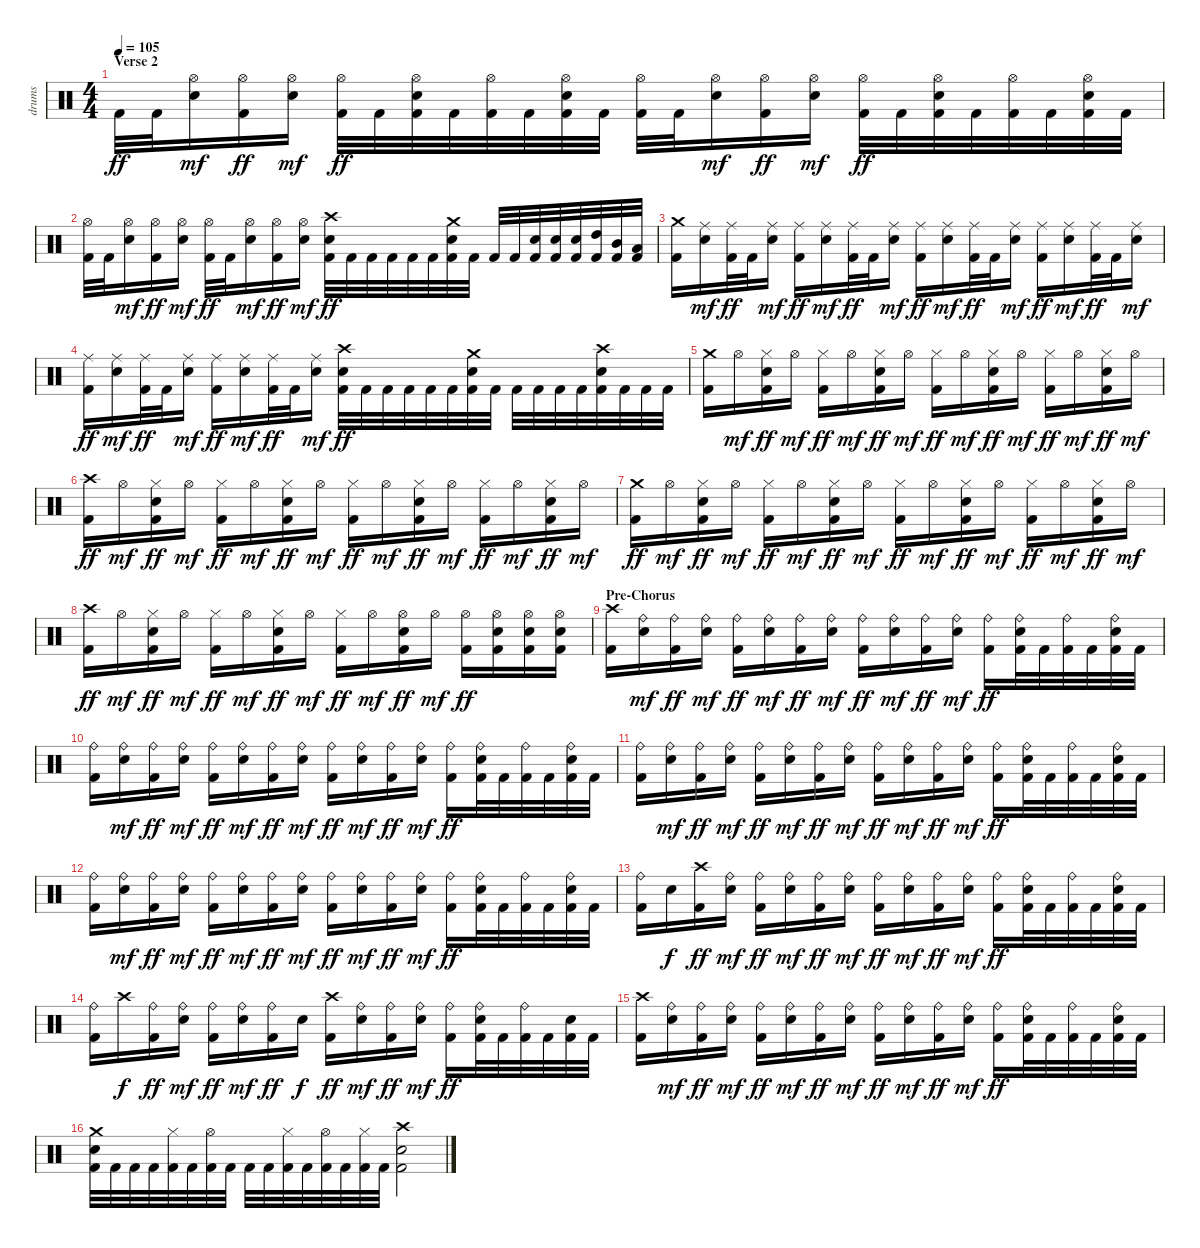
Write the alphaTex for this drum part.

\track ("drums" "drums") {instrument percussion}
\staff {score}
\articulation defaults
\ts (4 4)
\section ("" "Verse 2")
\tempo 105
\clef neutral
\ks c "Kick (hit) 2".32{dy ff} "Kick (hit) 2".32
("Hi-Hat (open)" "Snare (hit) 2").16{dy mf} ("Hi-Hat (open)" "Kick (hit) 2").16{dy ff} ("Hi-Hat (open)" "Snare (hit) 2").16{dy mf} ("Hi-Hat (open)" "Kick (hit) 2").32{dy ff} "Kick (hit) 2".32 ("Hi-Hat (open)" "Snare (hit) 2" "Kick (hit) 2").32 "Kick (hit) 2".32 ("Hi-Hat (open)" "Kick (hit) 2").32 "Kick (hit) 2".32 ("Hi-Hat (open)" "Snare (hit) 2" "Kick (hit) 2").32 "Kick (hit) 2".32 ("Hi-Hat (open)" "Kick (hit) 2").32 "Kick (hit) 2".32 ("Hi-Hat (open)" "Snare (hit) 2").16{dy mf} ("Hi-Hat (open)" "Kick (hit) 2").16{dy ff} ("Hi-Hat (open)" "Snare (hit) 2").16{dy mf} ("Hi-Hat (open)" "Kick (hit) 2").32{dy ff} "Kick (hit) 2".32 ("Hi-Hat (open)" "Snare (hit) 2" "Kick (hit) 2").32 "Kick (hit) 2".32 ("Hi-Hat (open)" "Kick (hit) 2").32 "Kick (hit) 2".32 ("Hi-Hat (open)" "Snare (hit) 2" "Kick (hit) 2").32 "Kick (hit) 2".32 |
("Hi-Hat (open)" "Kick (hit) 2").32 "Kick (hit) 2".32 ("Hi-Hat (open)" "Snare (hit) 2").16{dy mf} ("Hi-Hat (open)" "Kick (hit) 2").16{dy ff} ("Hi-Hat (open)" "Snare (hit) 2").16{dy mf} ("Hi-Hat (open)" "Kick (hit) 2").32{dy ff} "Kick (hit) 2".32 ("Hi-Hat (open)" "Snare (hit) 2").16{dy mf} ("Hi-Hat (open)" "Kick (hit) 2").16{dy ff} ("Hi-Hat (open)" "Snare (hit) 2").16{dy mf} ("Crash high (hit)" "Snare (hit) 2" "Kick (hit) 2").32{dy ff} "Kick (hit) 2".32 "Kick (hit) 2".32 "Kick (hit) 2".32 "Kick (hit) 2".32 "Kick (hit) 2".32 ("Crash medium (hit)" "Snare (hit) 2" "Kick (hit) 2").32 "Kick (hit) 2".32 "Kick (hit) 2".32 "Kick (hit) 2".32 ("Snare (hit) 2" "Kick (hit) 2").32 ("Snare (hit) 2" "Kick (hit) 2").32 ("Snare (hit) 2" "Kick (hit) 2").32 ("High Tom (hit)" "Kick (hit) 2").32 ("Mid Tom (hit)" "Kick (hit) 2").32 ("Low Tom (hit)" "Kick (hit) 2").32 |
("Crash medium (hit)" "Kick (hit) 2").16 ("Ride (middle)" "Snare (hit) 2").16{dy mf} ("Ride (middle)" "Kick (hit) 2").32{dy ff} "Kick (hit) 2".32 ("Ride (middle)" "Snare (hit) 2").16{dy mf} ("Ride (middle)" "Kick (hit) 2").16{dy ff} ("Ride (middle)" "Snare (hit) 2").16{dy mf} ("Ride (middle)" "Kick (hit) 2").32{dy ff} "Kick (hit) 2".32 ("Ride (middle)" "Snare (hit) 2").16{dy mf} ("Ride (middle)" "Kick (hit) 2").16{dy ff} ("Ride (middle)" "Snare (hit) 2").16{dy mf} ("Ride (middle)" "Kick (hit) 2").32{dy ff} "Kick (hit) 2".32 ("Ride (middle)" "Snare (hit) 2").16{dy mf} ("Ride (middle)" "Kick (hit) 2").16{dy ff} ("Ride (middle)" "Snare (hit) 2").16{dy mf} ("Ride (middle)" "Kick (hit) 2").32{dy ff} "Kick (hit) 2".32 ("Ride (middle)" "Snare (hit) 2").16{dy mf} |
("Ride (middle)" "Kick (hit) 2").16{dy ff} ("Ride (middle)" "Snare (hit) 2").16{dy mf} ("Ride (middle)" "Kick (hit) 2").32{dy ff} "Kick (hit) 2".32 ("Ride (middle)" "Snare (hit) 2").16{dy mf} ("Ride (middle)" "Kick (hit) 2").16{dy ff} ("Ride (middle)" "Snare (hit) 2").16{dy mf} ("Ride (middle)" "Kick (hit) 2").32{dy ff} "Kick (hit) 2".32 ("Ride (middle)" "Snare (hit) 2").16{dy mf} ("Crash high (hit)" "Snare (hit) 2" "Kick (hit) 2").32{dy ff} "Kick (hit) 2".32 "Kick (hit) 2".32 "Kick (hit) 2".32 "Kick (hit) 2".32 "Kick (hit) 2".32 ("Crash medium (hit)" "Snare (hit) 2" "Kick (hit) 2").32 "Kick (hit) 2".32 "Kick (hit) 2".32 "Kick (hit) 2".32 "Kick (hit) 2".32 "Kick (hit) 2".32 ("Crash high (hit)" "Snare (hit) 2" "Kick (hit) 2").32 "Kick (hit) 2".32 "Kick (hit) 2".32 "Kick (hit) 2".32 |
\section ("" "")
("Crash medium (hit)" "Kick (hit) 2").16 "Hi-Hat (open)".16{dy mf} ("Hi-Hat (closed)" "Snare (hit) 2" "Kick (hit) 2").16{dy ff} "Hi-Hat (open)".16{dy mf} ("Hi-Hat (closed)" "Kick (hit) 2").16{dy ff} "Hi-Hat (open)".16{dy mf} ("Hi-Hat (closed)" "Snare (hit) 2" "Kick (hit) 2").16{dy ff} "Hi-Hat (open)".16{dy mf} ("Hi-Hat (closed)" "Kick (hit) 2").16{dy ff} "Hi-Hat (open)".16{dy mf} ("Hi-Hat (closed)" "Snare (hit) 2" "Kick (hit) 2").16{dy ff} "Hi-Hat (open)".16{dy mf} ("Hi-Hat (closed)" "Kick (hit) 2").16{dy ff} "Hi-Hat (open)".16{dy mf} ("Hi-Hat (closed)" "Snare (hit) 2" "Kick (hit) 2").16{dy ff} "Hi-Hat (open)".16{dy mf} |
("Crash high (hit)" "Kick (hit) 2").16{dy ff} "Hi-Hat (open)".16{dy mf} ("Hi-Hat (closed)" "Snare (hit) 2" "Kick (hit) 2").16{dy ff} "Hi-Hat (open)".16{dy mf} ("Hi-Hat (closed)" "Kick (hit) 2").16{dy ff} "Hi-Hat (open)".16{dy mf} ("Hi-Hat (closed)" "Snare (hit) 2" "Kick (hit) 2").16{dy ff} "Hi-Hat (open)".16{dy mf} ("Hi-Hat (closed)" "Kick (hit) 2").16{dy ff} "Hi-Hat (open)".16{dy mf} ("Hi-Hat (closed)" "Snare (hit) 2" "Kick (hit) 2").16{dy ff} "Hi-Hat (open)".16{dy mf} ("Hi-Hat (closed)" "Kick (hit) 2").16{dy ff} "Hi-Hat (open)".16{dy mf} ("Hi-Hat (closed)" "Snare (hit) 2" "Kick (hit) 2").16{dy ff} "Hi-Hat (open)".16{dy mf} |
("Crash medium (hit)" "Kick (hit) 2").16{dy ff} "Hi-Hat (open)".16{dy mf} ("Hi-Hat (closed)" "Snare (hit) 2" "Kick (hit) 2").16{dy ff} "Hi-Hat (open)".16{dy mf} ("Hi-Hat (closed)" "Kick (hit) 2").16{dy ff} "Hi-Hat (open)".16{dy mf} ("Hi-Hat (closed)" "Snare (hit) 2" "Kick (hit) 2").16{dy ff} "Hi-Hat (open)".16{dy mf} ("Hi-Hat (closed)" "Kick (hit) 2").16{dy ff} "Hi-Hat (open)".16{dy mf} ("Hi-Hat (closed)" "Snare (hit) 2" "Kick (hit) 2").16{dy ff} "Hi-Hat (open)".16{dy mf} ("Hi-Hat (closed)" "Kick (hit) 2").16{dy ff} "Hi-Hat (open)".16{dy mf} ("Hi-Hat (closed)" "Snare (hit) 2" "Kick (hit) 2").16{dy ff} "Hi-Hat (open)".16{dy mf} |
("Crash high (hit)" "Kick (hit) 2").16{dy ff} "Hi-Hat (open)".16{dy mf} ("Hi-Hat (closed)" "Snare (hit) 2" "Kick (hit) 2").16{dy ff} "Hi-Hat (open)".16{dy mf} ("Hi-Hat (closed)" "Kick (hit) 2").16{dy ff} "Hi-Hat (open)".16{dy mf} ("Hi-Hat (closed)" "Snare (hit) 2" "Kick (hit) 2").16{dy ff} "Hi-Hat (open)".16{dy mf} ("Hi-Hat (closed)" "Kick (hit) 2").16{dy ff} "Hi-Hat (open)".16{dy mf} ("Hi-Hat (open)" "Snare (hit) 2" "Kick (hit) 2").16{dy ff} "Hi-Hat (open)".16{dy mf} ("Hi-Hat (open)" "Kick (hit) 2").16{dy ff} ("Hi-Hat (open)" "Snare (hit) 2" "Kick (hit) 2").16 ("Hi-Hat (open)" "Snare (hit) 2" "Kick (hit) 2").16 ("Hi-Hat (open)" "Snare (hit) 2" "Kick (hit) 2").16 |
\section ("" "Pre-Chorus")
("Crash high (hit)" "Kick (hit) 2").16 ("Ride (bell)" "Snare (hit) 2").16{dy mf} ("Ride (bell)" "Kick (hit) 2").16{dy ff} ("Ride (bell)" "Snare (hit) 2").16{dy mf} ("Ride (bell)" "Kick (hit) 2").16{dy ff} ("Ride (bell)" "Snare (hit) 2").16{dy mf} ("Ride (bell)" "Kick (hit) 2").16{dy ff} ("Ride (bell)" "Snare (hit) 2").16{dy mf} ("Ride (bell)" "Kick (hit) 2").16{dy ff} ("Ride (bell)" "Snare (hit) 2").16{dy mf} ("Ride (bell)" "Kick (hit) 2").16{dy ff} ("Ride (bell)" "Snare (hit) 2").16{dy mf} ("Ride (bell)" "Kick (hit) 2").16{dy ff} ("Ride (bell)" "Snare (hit) 2" "Kick (hit) 2").32 "Kick (hit) 2".32 ("Ride (bell)" "Kick (hit) 2").32 "Kick (hit) 2".32 ("Ride (bell)" "Snare (hit) 2" "Kick (hit) 2").32 "Kick (hit) 2".32 |
("Ride (bell)" "Kick (hit) 2").16 ("Ride (bell)" "Snare (hit) 2").16{dy mf} ("Ride (bell)" "Kick (hit) 2").16{dy ff} ("Ride (bell)" "Snare (hit) 2").16{dy mf} ("Ride (bell)" "Kick (hit) 2").16{dy ff} ("Ride (bell)" "Snare (hit) 2").16{dy mf} ("Ride (bell)" "Kick (hit) 2").16{dy ff} ("Ride (bell)" "Snare (hit) 2").16{dy mf} ("Ride (bell)" "Kick (hit) 2").16{dy ff} ("Ride (bell)" "Snare (hit) 2").16{dy mf} ("Ride (bell)" "Kick (hit) 2").16{dy ff} ("Ride (bell)" "Snare (hit) 2").16{dy mf} ("Ride (bell)" "Kick (hit) 2").16{dy ff} ("Ride (bell)" "Snare (hit) 2" "Kick (hit) 2").32 "Kick (hit) 2".32 ("Ride (bell)" "Kick (hit) 2").32 "Kick (hit) 2".32 ("Ride (bell)" "Snare (hit) 2" "Kick (hit) 2").32 "Kick (hit) 2".32 |
("Ride (bell)" "Kick (hit) 2").16 ("Ride (bell)" "Snare (hit) 2").16{dy mf} ("Ride (bell)" "Kick (hit) 2").16{dy ff} ("Ride (bell)" "Snare (hit) 2").16{dy mf} ("Ride (bell)" "Kick (hit) 2").16{dy ff} ("Ride (bell)" "Snare (hit) 2").16{dy mf} ("Ride (bell)" "Kick (hit) 2").16{dy ff} ("Ride (bell)" "Snare (hit) 2").16{dy mf} ("Ride (bell)" "Kick (hit) 2").16{dy ff} ("Ride (bell)" "Snare (hit) 2").16{dy mf} ("Ride (bell)" "Kick (hit) 2").16{dy ff} ("Ride (bell)" "Snare (hit) 2").16{dy mf} ("Ride (bell)" "Kick (hit) 2").16{dy ff} ("Ride (bell)" "Snare (hit) 2" "Kick (hit) 2").32 "Kick (hit) 2".32 ("Ride (bell)" "Kick (hit) 2").32 "Kick (hit) 2".32 ("Ride (bell)" "Snare (hit) 2" "Kick (hit) 2").32 "Kick (hit) 2".32 |
("Ride (bell)" "Kick (hit) 2").16 ("Ride (bell)" "Snare (hit) 2").16{dy mf} ("Ride (bell)" "Kick (hit) 2").16{dy ff} ("Ride (bell)" "Snare (hit) 2").16{dy mf} ("Ride (bell)" "Kick (hit) 2").16{dy ff} ("Ride (bell)" "Snare (hit) 2").16{dy mf} ("Ride (bell)" "Kick (hit) 2").16{dy ff} ("Ride (bell)" "Snare (hit) 2").16{dy mf} ("Ride (bell)" "Kick (hit) 2").16{dy ff} ("Ride (bell)" "Snare (hit) 2").16{dy mf} ("Ride (bell)" "Kick (hit) 2").16{dy ff} ("Ride (bell)" "Snare (hit) 2").16{dy mf} ("Ride (bell)" "Kick (hit) 2").16{dy ff} ("Ride (bell)" "Snare (hit) 2" "Kick (hit) 2").32 "Kick (hit) 2".32 ("Ride (bell)" "Kick (hit) 2").32 "Kick (hit) 2".32 ("Ride (bell)" "Snare (hit) 2" "Kick (hit) 2").32 "Kick (hit) 2".32 |
("Ride (bell)" "Kick (hit) 2").16 "Snare (hit) 2".16{dy f} ("Crash high (hit)" "Kick (hit) 2").16{dy ff} ("Ride (bell)" "Snare (hit) 2").16{dy mf} ("Ride (bell)" "Kick (hit) 2").16{dy ff} ("Ride (bell)" "Snare (hit) 2").16{dy mf} ("Ride (bell)" "Kick (hit) 2").16{dy ff} ("Ride (bell)" "Snare (hit) 2").16{dy mf} ("Ride (bell)" "Kick (hit) 2").16{dy ff} ("Ride (bell)" "Snare (hit) 2").16{dy mf} ("Ride (bell)" "Kick (hit) 2").16{dy ff} ("Ride (bell)" "Snare (hit) 2").16{dy mf} ("Ride (bell)" "Kick (hit) 2").16{dy ff} ("Ride (bell)" "Snare (hit) 2" "Kick (hit) 2").32 "Kick (hit) 2".32 ("Ride (bell)" "Kick (hit) 2").32 "Kick (hit) 2".32 ("Ride (bell)" "Snare (hit) 2" "Kick (hit) 2").32 "Kick (hit) 2".32 |
("Ride (bell)" "Kick (hit) 2").16 "Crash high (hit)".16{dy f} ("Ride (bell)" "Kick (hit) 2").16{dy ff} ("Ride (bell)" "Snare (hit) 2").16{dy mf} ("Ride (bell)" "Kick (hit) 2").16{dy ff} ("Ride (bell)" "Snare (hit) 2").16{dy mf} ("Ride (bell)" "Kick (hit) 2").16{dy ff} "Snare (hit) 2".16{dy f} ("Crash high (hit)" "Kick (hit) 2").16{dy ff} ("Ride (bell)" "Snare (hit) 2").16{dy mf} ("Ride (bell)" "Kick (hit) 2").16{dy ff} ("Ride (bell)" "Snare (hit) 2").16{dy mf} ("Ride (bell)" "Kick (hit) 2").16{dy ff} ("Ride (bell)" "Snare (hit) 2" "Kick (hit) 2").32 "Kick (hit) 2".32 ("Ride (bell)" "Kick (hit) 2").32 "Kick (hit) 2".32 ("Snare (hit) 2" "Kick (hit) 2").32 "Kick (hit) 2".32 |
("Crash high (hit)" "Kick (hit) 2").16 ("Ride (bell)" "Snare (hit) 2").16{dy mf} ("Ride (bell)" "Kick (hit) 2").16{dy ff} ("Ride (bell)" "Snare (hit) 2").16{dy mf} ("Ride (bell)" "Kick (hit) 2").16{dy ff} ("Ride (bell)" "Snare (hit) 2").16{dy mf} ("Ride (bell)" "Kick (hit) 2").16{dy ff} ("Ride (bell)" "Snare (hit) 2").16{dy mf} ("Ride (bell)" "Kick (hit) 2").16{dy ff} ("Ride (bell)" "Snare (hit) 2").16{dy mf} ("Ride (bell)" "Kick (hit) 2").16{dy ff} ("Ride (bell)" "Snare (hit) 2").16{dy mf} ("Ride (bell)" "Kick (hit) 2").16{dy ff} ("Ride (bell)" "Snare (hit) 2" "Kick (hit) 2").32 "Kick (hit) 2".32 ("Ride (bell)" "Kick (hit) 2").32 "Kick (hit) 2".32 ("Ride (bell)" "Snare (hit) 2" "Kick (hit) 2").32 "Kick (hit) 2".32 |
("Crash medium (hit)" "Snare (hit) 2" "Kick (hit) 2").32 "Kick (hit) 2".32 "Kick (hit) 2".32 "Kick (hit) 2".32 ("Hi-Hat (closed)" "Kick (hit) 2").32 "Kick (hit) 2".32 ("Hi-Hat (open)" "Kick (hit) 2").32 "Kick (hit) 2".32 "Kick (hit) 2".32 "Kick (hit) 2".32 ("Hi-Hat (closed)" "Kick (hit) 2").32 "Kick (hit) 2".32 ("Hi-Hat (open)" "Kick (hit) 2").32 "Kick (hit) 2".32 ("Hi-Hat (closed)" "Kick (hit) 2").32 "Kick (hit) 2".32 ("Crash high (hit)" "Snare (hit) 2" "Kick (hit) 2").2
